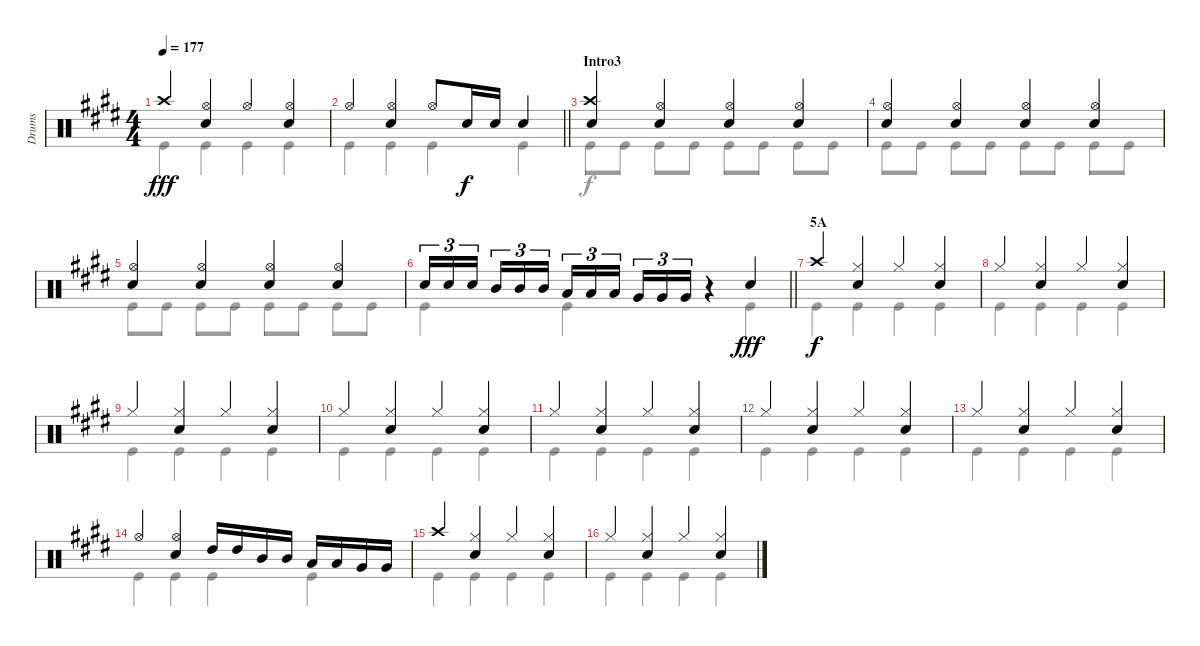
\track ("Drums" "Drums") {instrument percussion}
\staff {score}
\articulation defaults
\voice
\ts (4 4)
\tempo 177
\clef neutral
\ks e "Crash high (hit)".4{dy fff}
("Hi-Hat (open)" "Snare (hit) 2").4 "Hi-Hat (open)".4 ("Hi-Hat (open)" "Snare (hit) 2").4 |
\barLineRight lightlight "Hi-Hat (open)".4
("Hi-Hat (open)" "Snare (hit) 2").4 "Hi-Hat (open)".8 "Snare (hit) 2".16{dy f} "Snare (hit) 2".16 "Snare (hit) 2".4 |
\section ("" "Intro3")
("Crash high (hit)" "Snare (hit) 2").4 ("Hi-Hat (open)" "Snare (hit) 2").4 ("Hi-Hat (open)" "Snare (hit) 2").4 ("Hi-Hat (open)" "Snare (hit) 2").4 |
("Hi-Hat (open)" "Snare (hit) 2").4 ("Hi-Hat (open)" "Snare (hit) 2").4 ("Hi-Hat (open)" "Snare (hit) 2").4 ("Hi-Hat (open)" "Snare (hit) 2").4 |
("Hi-Hat (open)" "Snare (hit) 2").4 ("Hi-Hat (open)" "Snare (hit) 2").4 ("Hi-Hat (open)" "Snare (hit) 2").4 ("Hi-Hat (open)" "Snare (hit) 2").4 |
\barLineRight lightlight "Snare (hit) 2".16{tu (3 2)} "Snare (hit) 2".16{tu (3 2)} "Snare (hit) 2".16{tu (3 2) beam splitsecondary} "Mid Tom (hit)".16{tu (3 2)} "Mid Tom (hit)".16{tu (3 2)} "Mid Tom (hit)".16{tu (3 2)} "Low Tom (hit)".16{tu (3 2)} "Low Tom (hit)".16{tu (3 2)} "Low Tom (hit)".16{tu (3 2) beam splitsecondary} "Very Low Tom (hit)".16{tu (3 2)} "Very Low Tom (hit)".16{tu (3 2)} "Very Low Tom (hit)".16{tu (3 2)}
r.4 "Snare (hit) 2".4{dy fff} |
\section ("" "5A")
"Crash high (hit)".4{dy f} ("Hi-Hat (closed)" "Snare (hit) 2").4 "Hi-Hat (closed)".4 ("Hi-Hat (closed)" "Snare (hit) 2").4 |
"Hi-Hat (closed)".4 ("Hi-Hat (closed)" "Snare (hit) 2").4 "Hi-Hat (closed)".4 ("Hi-Hat (closed)" "Snare (hit) 2").4 |
"Hi-Hat (closed)".4 ("Hi-Hat (closed)" "Snare (hit) 2").4 "Hi-Hat (closed)".4 ("Hi-Hat (closed)" "Snare (hit) 2").4 |
"Hi-Hat (closed)".4 ("Hi-Hat (closed)" "Snare (hit) 2").4 "Hi-Hat (closed)".4 ("Hi-Hat (closed)" "Snare (hit) 2").4 |
"Hi-Hat (closed)".4 ("Hi-Hat (closed)" "Snare (hit) 2").4 "Hi-Hat (closed)".4 ("Hi-Hat (closed)" "Snare (hit) 2").4 |
"Hi-Hat (closed)".4 ("Hi-Hat (closed)" "Snare (hit) 2").4 "Hi-Hat (closed)".4 ("Hi-Hat (closed)" "Snare (hit) 2").4 |
"Hi-Hat (closed)".4 ("Hi-Hat (closed)" "Snare (hit) 2").4 "Hi-Hat (closed)".4 ("Hi-Hat (closed)" "Snare (hit) 2").4 |
"Hi-Hat (open)".4 ("Hi-Hat (open)" "Snare (hit) 2").4 "High Tom (hit)".16 "High Tom (hit)".16 "Mid Tom (hit)".16 "Mid Tom (hit)".16 "Low Tom (hit)".16 "Low Tom (hit)".16 "Very Low Tom (hit)".16 "Very Low Tom (hit)".16 |
"Crash high (hit)".4 ("Hi-Hat (closed)" "Snare (hit) 2").4 "Hi-Hat (closed)".4 ("Hi-Hat (closed)" "Snare (hit) 2").4 |
"Hi-Hat (closed)".4 ("Hi-Hat (closed)" "Snare (hit) 2").4 "Hi-Hat (closed)".4 ("Hi-Hat (closed)" "Snare (hit) 2").4
\voice
\clef neutral
\ottava regular
\simile none
\ks e "Kick (hit)".4{dy fff} "Kick (hit)".4 "Kick (hit)".4 "Kick (hit)".4
|
\barLineRight lightlight "Kick (hit)".4 "Kick (hit)".4 "Kick (hit)".4 "Kick (hit)".4
|
"Kick (hit)".8{dy f} "Kick (hit)".8 "Kick (hit)".8 "Kick (hit)".8 "Kick (hit)".8 "Kick (hit)".8 "Kick (hit)".8 "Kick (hit)".8 |
"Kick (hit)".8 "Kick (hit)".8 "Kick (hit)".8 "Kick (hit)".8 "Kick (hit)".8 "Kick (hit)".8 "Kick (hit)".8 "Kick (hit)".8 |
"Kick (hit)".8 "Kick (hit)".8 "Kick (hit)".8 "Kick (hit)".8 "Kick (hit)".8 "Kick (hit)".8 "Kick (hit)".8 "Kick (hit)".8 |
\barLineRight lightlight "Kick (hit)".4 "Kick (hit)".4
r.4 "Kick (hit)".4 |
"Kick (hit)".4 "Kick (hit)".4 "Kick (hit)".4 "Kick (hit)".4 |
"Kick (hit)".4 "Kick (hit)".4 "Kick (hit)".4 "Kick (hit)".4 |
"Kick (hit)".4 "Kick (hit)".4 "Kick (hit)".4 "Kick (hit)".4 |
"Kick (hit)".4 "Kick (hit)".4 "Kick (hit)".4 "Kick (hit)".4 |
"Kick (hit)".4 "Kick (hit)".4 "Kick (hit)".4 "Kick (hit)".4 |
"Kick (hit)".4 "Kick (hit)".4 "Kick (hit)".4 "Kick (hit)".4 |
"Kick (hit)".4 "Kick (hit)".4 "Kick (hit)".4 "Kick (hit)".4 |
"Kick (hit)".4 "Kick (hit)".4 "Kick (hit)".4 "Kick (hit)".4 |
"Kick (hit)".4 "Kick (hit)".4 "Kick (hit)".4 "Kick (hit)".4 |
"Kick (hit)".4 "Kick (hit)".4 "Kick (hit)".4 "Kick (hit)".4
